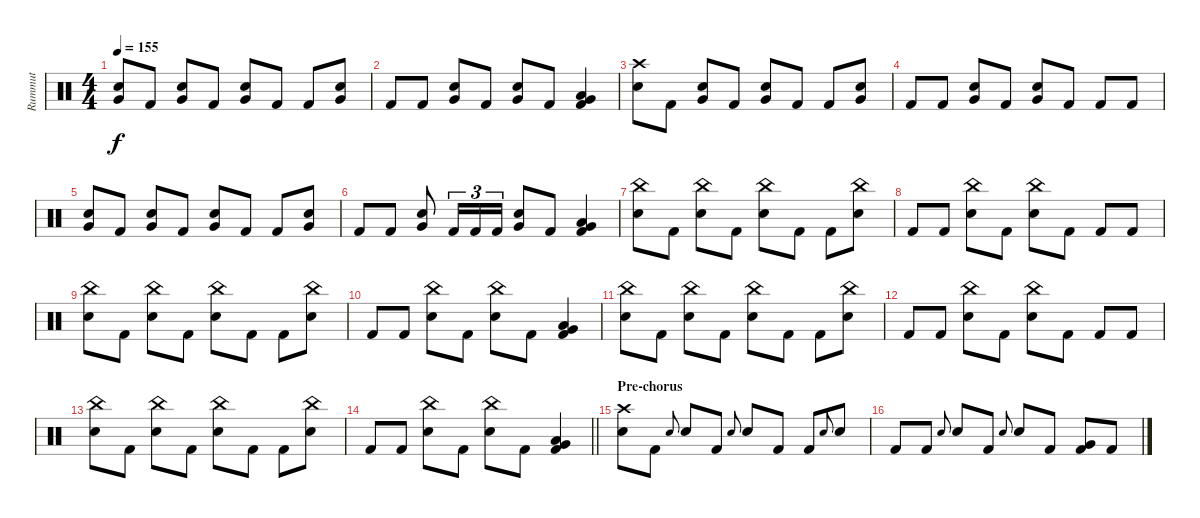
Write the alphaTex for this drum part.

\track ("Rummut" "Rummut") {instrument percussion}
\staff {score}
\articulation defaults
\ts (4 4)
\tempo 155
\clef neutral
\ks c
("Very Low Tom (hit)" "Electric Snare (hit)").8{dy f} "Kick (hit) 2".8 ("Very Low Tom (hit)" "Electric Snare (hit)").8 "Kick (hit) 2".8 ("Very Low Tom (hit)" "Electric Snare (hit)").8 "Kick (hit) 2".8 "Kick (hit) 2".8 ("Very Low Tom (hit)" "Electric Snare (hit)").8 |
"Kick (hit) 2".8 "Kick (hit) 2".8 ("Very Low Tom (hit)" "Electric Snare (hit)").8 "Kick (hit) 2".8 ("Very Low Tom (hit)" "Electric Snare (hit)").8 "Kick (hit) 2".8 ("Low Tom (hit)" "Very Low Tom (hit)" "Kick (hit) 2").4 |
("Crash high (hit)" "Electric Snare (hit)").8 "Kick (hit) 2".8 ("Very Low Tom (hit)" "Electric Snare (hit)").8 "Kick (hit) 2".8 ("Very Low Tom (hit)" "Electric Snare (hit)").8 "Kick (hit) 2".8 "Kick (hit) 2".8 ("Very Low Tom (hit)" "Electric Snare (hit)").8 |
"Kick (hit) 2".8 "Kick (hit) 2".8 ("Very Low Tom (hit)" "Electric Snare (hit)").8 "Kick (hit) 2".8 ("Very Low Tom (hit)" "Electric Snare (hit)").8 "Kick (hit) 2".8 "Kick (hit) 2".8 "Kick (hit) 2".8 |
("Very Low Tom (hit)" "Electric Snare (hit)").8 "Kick (hit) 2".8 ("Very Low Tom (hit)" "Electric Snare (hit)").8 "Kick (hit) 2".8 ("Very Low Tom (hit)" "Electric Snare (hit)").8 "Kick (hit) 2".8 "Kick (hit) 2".8 ("Very Low Tom (hit)" "Electric Snare (hit)").8 |
"Kick (hit) 2".8 "Kick (hit) 2".8 ("Very Low Tom (hit)" "Electric Snare (hit)").8 "Kick (hit) 2".16{tu (3 2)} "Kick (hit) 2".16{tu (3 2)} "Kick (hit) 2".16{tu (3 2)} ("Very Low Tom (hit)" "Electric Snare (hit)").8 "Kick (hit) 2".8 ("Low Tom (hit)" "Very Low Tom (hit)" "Kick (hit) 2").4 |
("China (hit)" "Electric Snare (hit)").8 "Kick (hit) 2".8 ("China (hit)" "Electric Snare (hit)").8 "Kick (hit) 2".8 ("China (hit)" "Electric Snare (hit)").8 "Kick (hit) 2".8 "Kick (hit) 2".8 ("China (hit)" "Electric Snare (hit)").8 |
"Kick (hit) 2".8 "Kick (hit) 2".8 ("China (hit)" "Electric Snare (hit)").8 "Kick (hit) 2".8 ("China (hit)" "Electric Snare (hit)").8 "Kick (hit) 2".8 "Kick (hit) 2".8 "Kick (hit) 2".8 |
("China (hit)" "Electric Snare (hit)").8 "Kick (hit) 2".8 ("China (hit)" "Electric Snare (hit)").8 "Kick (hit) 2".8 ("China (hit)" "Electric Snare (hit)").8 "Kick (hit) 2".8 "Kick (hit) 2".8 ("China (hit)" "Electric Snare (hit)").8 |
"Kick (hit) 2".8 "Kick (hit) 2".8 ("China (hit)" "Electric Snare (hit)").8 "Kick (hit) 2".8 ("China (hit)" "Electric Snare (hit)").8 "Kick (hit) 2".8 ("Low Tom (hit)" "Very Low Tom (hit)" "Kick (hit) 2").4 |
("China (hit)" "Electric Snare (hit)").8 "Kick (hit) 2".8 ("China (hit)" "Electric Snare (hit)").8 "Kick (hit) 2".8 ("China (hit)" "Electric Snare (hit)").8 "Kick (hit) 2".8 "Kick (hit) 2".8 ("China (hit)" "Electric Snare (hit)").8 |
"Kick (hit) 2".8 "Kick (hit) 2".8 ("China (hit)" "Electric Snare (hit)").8 "Kick (hit) 2".8 ("China (hit)" "Electric Snare (hit)").8 "Kick (hit) 2".8 "Kick (hit) 2".8 "Kick (hit) 2".8 |
("China (hit)" "Electric Snare (hit)").8 "Kick (hit) 2".8 ("China (hit)" "Electric Snare (hit)").8 "Kick (hit) 2".8 ("China (hit)" "Electric Snare (hit)").8 "Kick (hit) 2".8 "Kick (hit) 2".8 ("China (hit)" "Electric Snare (hit)").8 |
\barLineRight lightlight "Kick (hit) 2".8 "Kick (hit) 2".8
("China (hit)" "Electric Snare (hit)").8 "Kick (hit) 2".8 ("China (hit)" "Electric Snare (hit)").8 "Kick (hit) 2".8 ("Low Tom (hit)" "Very Low Tom (hit)" "Kick (hit) 2").4 |
\section ("" "Pre-chorus")
("Crash high (hit)" "Electric Snare (hit)").8 "Kick (hit) 2".8 "Electric Snare (hit)".8{gr onbeat} "Electric Snare (hit)".8 "Kick (hit) 2".8 "Electric Snare (hit)".8{gr onbeat} "Electric Snare (hit)".8 "Kick (hit) 2".8 "Kick (hit) 2".8 "Electric Snare (hit)".8{gr onbeat} "Electric Snare (hit)".8 |
"Kick (hit) 2".8 "Kick (hit) 2".8 "Electric Snare (hit)".8{gr onbeat} "Electric Snare (hit)".8 "Kick (hit) 2".8 "Electric Snare (hit)".8{gr onbeat} "Electric Snare (hit)".8 "Kick (hit) 2".8 ("Very Low Tom (hit)" "Kick (hit) 2").8 "Kick (hit) 2".8
